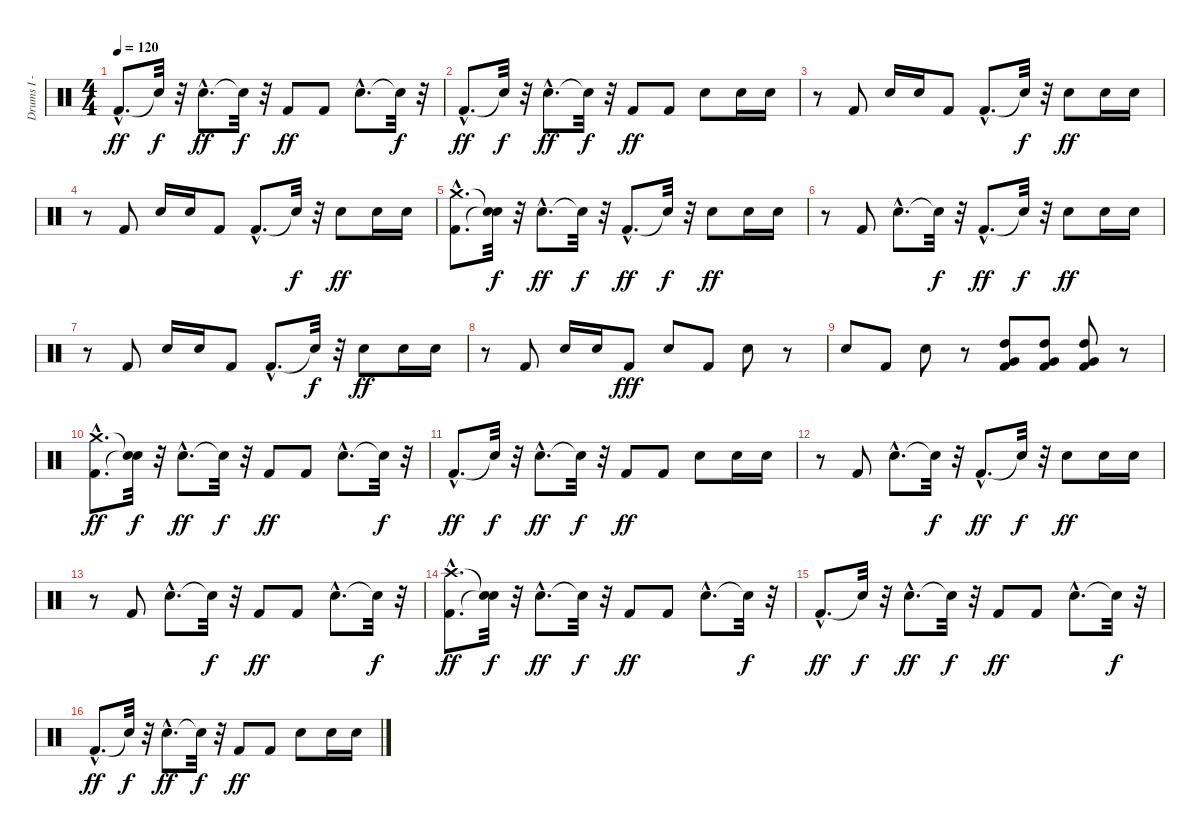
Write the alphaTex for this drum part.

\track ("Drums I - Bobby Schayer" "Drums I - ") {instrument percussion}
\staff {score}
\articulation defaults
\ts (4 4)
\tempo 120
\clef neutral
\ks c "Kick (hit) 2"{hac}.8{d dy ff} "Snare (hit)"{t}.32{dy f}
r.32 "Snare (hit) 2"{hac}.8{d dy ff} "Snare (hit)"{t}.32{dy f} r.32 "Kick (hit) 2".8{dy ff} "Kick (hit) 2".8 "Snare (hit) 2"{hac}.8{d} "Snare (hit)"{t}.32{dy f} r.32 |
"Kick (hit) 2"{hac}.8{d dy ff} "Snare (hit)"{t}.32{dy f} r.32 "Snare (hit) 2"{hac}.8{d dy ff} "Snare (hit)"{t}.32{dy f} r.32 "Kick (hit) 2".8{dy ff} "Kick (hit) 2".8 "Snare (hit) 2".8 "Snare (hit) 2".16 "Snare (hit) 2".16 |
r.8 "Kick (hit) 2".8 "Snare (hit) 2".16 "Snare (hit) 2".16 "Kick (hit) 2".8 "Kick (hit) 2"{hac}.8{d} "Snare (hit)"{t}.32{dy f} r.32 "Snare (hit) 2".8{dy ff} "Snare (hit) 2".16 "Snare (hit) 2".16 |
r.8 "Kick (hit) 2".8 "Snare (hit) 2".16 "Snare (hit) 2".16 "Kick (hit) 2".8 "Kick (hit) 2"{hac}.8{d} "Snare (hit)"{t}.32{dy f} r.32 "Snare (hit) 2".8{dy ff} "Snare (hit) 2".16 "Snare (hit) 2".16 |
("Kick (hit) 2"{hac} "Crash medium (hit)"{hac}).8{d} ("Snare (hit)"{t} "Snare (hit)"{t}).32{dy f} r.32 "Snare (hit) 2"{hac}.8{d dy ff} "Snare (hit)"{t}.32{dy f} r.32 "Kick (hit) 2"{hac}.8{d dy ff} "Snare (hit)"{t}.32{dy f} r.32 "Snare (hit) 2".8{dy ff} "Snare (hit) 2".16 "Snare (hit) 2".16 |
r.8 "Kick (hit) 2".8 "Snare (hit) 2"{hac}.8{d} "Snare (hit)"{t}.32{dy f} r.32 "Kick (hit) 2"{hac}.8{d dy ff} "Snare (hit)"{t}.32{dy f} r.32 "Snare (hit) 2".8{dy ff} "Snare (hit) 2".16 "Snare (hit) 2".16 |
r.8 "Kick (hit) 2".8 "Snare (hit) 2".16 "Snare (hit) 2".16 "Kick (hit) 2".8 "Kick (hit) 2"{hac}.8{d} "Snare (hit)"{t}.32{dy f} r.32 "Snare (hit) 2".8{dy ff} "Snare (hit) 2".16 "Snare (hit) 2".16 |
r.8 "Kick (hit) 2".8 "Snare (hit) 2".16 "Snare (hit) 2".16 "Kick (hit) 2".8{dy fff} "Snare (hit) 2".8 "Kick (hit) 2".8 "Snare (hit) 2".8 r.8 |
"Snare (hit) 2".8 "Kick (hit) 2".8 "Snare (hit) 2".8 r.8 ("Kick (hit) 2" "Very Low Tom (hit)" "High Tom (hit)").8 ("Kick (hit) 2" "Very Low Tom (hit)" "High Tom (hit)").8 ("Kick (hit) 2" "Very Low Tom (hit)" "High Tom (hit)").8 r.8 |
("Kick (hit) 2"{hac} "Crash medium (hit)"{hac}).8{d dy ff} ("Snare (hit)"{t} "Snare (hit)"{t}).32{dy f} r.32 "Snare (hit) 2"{hac}.8{d dy ff} "Snare (hit)"{t}.32{dy f} r.32 "Kick (hit) 2".8{dy ff} "Kick (hit) 2".8 "Snare (hit) 2"{hac}.8{d} "Snare (hit)"{t}.32{dy f} r.32 |
"Kick (hit) 2"{hac}.8{d dy ff} "Snare (hit)"{t}.32{dy f} r.32 "Snare (hit) 2"{hac}.8{d dy ff} "Snare (hit)"{t}.32{dy f} r.32 "Kick (hit) 2".8{dy ff} "Kick (hit) 2".8 "Snare (hit) 2".8 "Snare (hit) 2".16 "Snare (hit) 2".16 |
r.8 "Kick (hit) 2".8 "Snare (hit) 2"{hac}.8{d} "Snare (hit)"{t}.32{dy f} r.32 "Kick (hit) 2"{hac}.8{d dy ff} "Snare (hit)"{t}.32{dy f} r.32 "Snare (hit) 2".8{dy ff} "Snare (hit) 2".16 "Snare (hit) 2".16 |
r.8 "Kick (hit) 2".8 "Snare (hit) 2"{hac}.8{d} "Snare (hit)"{t}.32{dy f} r.32 "Kick (hit) 2".8{dy ff} "Kick (hit) 2".8 "Snare (hit) 2"{hac}.8{d} "Snare (hit)"{t}.32{dy f} r.32 |
("Kick (hit) 2"{hac} "Crash high (hit)"{hac}).8{d dy ff} ("Snare (hit)"{t} "Snare (hit)"{t}).32{dy f} r.32 "Snare (hit) 2"{hac}.8{d dy ff} "Snare (hit)"{t}.32{dy f} r.32 "Kick (hit) 2".8{dy ff} "Kick (hit) 2".8 "Snare (hit) 2"{hac}.8{d} "Snare (hit)"{t}.32{dy f} r.32 |
"Kick (hit) 2"{hac}.8{d dy ff} "Snare (hit)"{t}.32{dy f} r.32 "Snare (hit) 2"{hac}.8{d dy ff} "Snare (hit)"{t}.32{dy f} r.32 "Kick (hit) 2".8{dy ff} "Kick (hit) 2".8 "Snare (hit) 2"{hac}.8{d} "Snare (hit)"{t}.32{dy f} r.32 |
"Kick (hit) 2"{hac}.8{d dy ff} "Snare (hit)"{t}.32{dy f} r.32 "Snare (hit) 2"{hac}.8{d dy ff} "Snare (hit)"{t}.32{dy f} r.32 "Kick (hit) 2".8{dy ff} "Kick (hit) 2".8 "Snare (hit) 2".8 "Snare (hit) 2".16 "Snare (hit) 2".16
